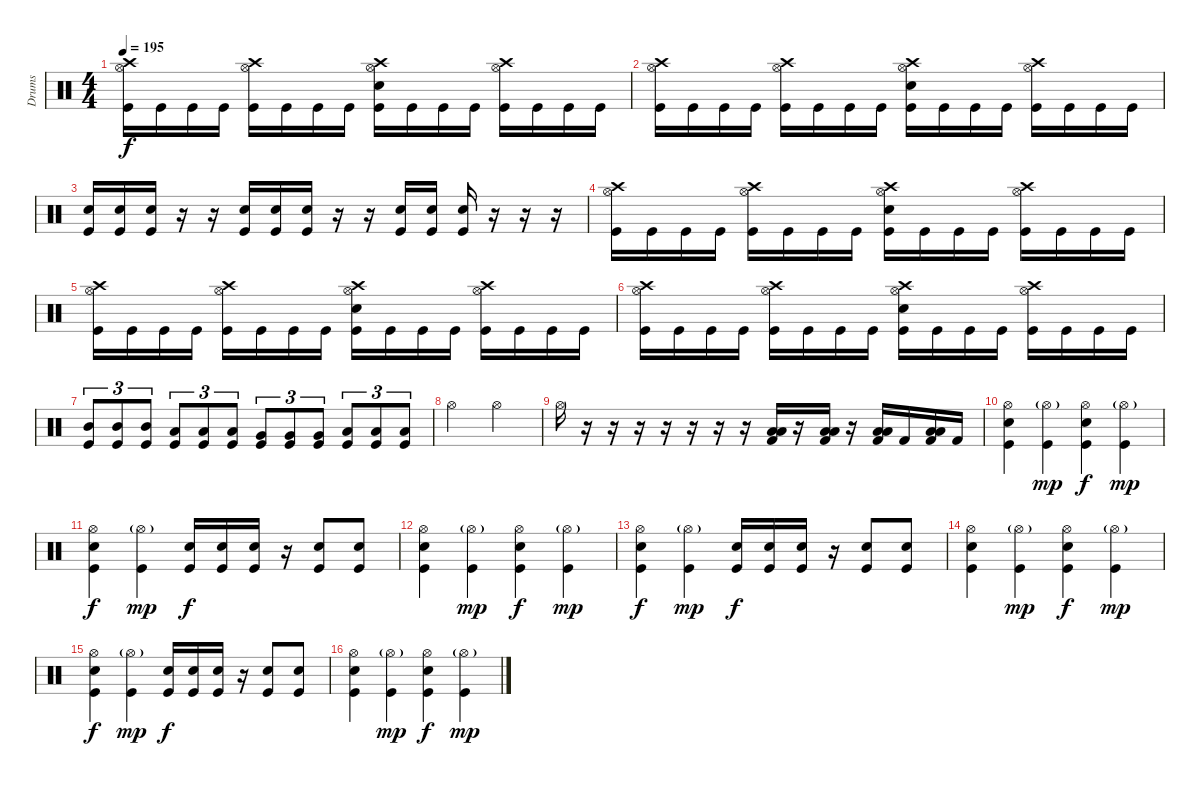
\track ("Drums" "Drums") {instrument percussion}
\staff {score}
\articulation defaults
\ts (4 4)
\tempo 195
\clef neutral
\ks c
("Crash high (hit)" "Hi-Hat (open)" "Kick (hit)").16{dy f} "Kick (hit)".16 "Kick (hit)".16 "Kick (hit)".16 ("Crash high (hit)" "Hi-Hat (open)" "Kick (hit)").16 "Kick (hit)".16 "Kick (hit)".16 "Kick (hit)".16 ("Crash high (hit)" "Hi-Hat (open)" "Electric Snare (hit)" "Kick (hit)").16 "Kick (hit)".16 "Kick (hit)".16 "Kick (hit)".16 ("Crash high (hit)" "Hi-Hat (open)" "Kick (hit)").16 "Kick (hit)".16 "Kick (hit)".16 "Kick (hit)".16 |
("Crash high (hit)" "Hi-Hat (open)" "Kick (hit)").16 "Kick (hit)".16 "Kick (hit)".16 "Kick (hit)".16 ("Crash high (hit)" "Hi-Hat (open)" "Kick (hit)").16 "Kick (hit)".16 "Kick (hit)".16 "Kick (hit)".16 ("Crash high (hit)" "Hi-Hat (open)" "Electric Snare (hit)" "Kick (hit)").16 "Kick (hit)".16 "Kick (hit)".16 "Kick (hit)".16 ("Crash high (hit)" "Hi-Hat (open)" "Kick (hit)").16 "Kick (hit)".16 "Kick (hit)".16 "Kick (hit)".16 |
("Electric Snare (hit)" "Kick (hit)").16 ("Electric Snare (hit)" "Kick (hit)").16 ("Electric Snare (hit)" "Kick (hit)").16 r.16 r.16 ("Electric Snare (hit)" "Kick (hit)").16 ("Electric Snare (hit)" "Kick (hit)").16 ("Electric Snare (hit)" "Kick (hit)").16 r.16 r.16 ("Electric Snare (hit)" "Kick (hit)").16 ("Electric Snare (hit)" "Kick (hit)").16 ("Electric Snare (hit)" "Kick (hit)").16 r.16 r.16 r.16 |
("Crash high (hit)" "Hi-Hat (open)" "Kick (hit)").16 "Kick (hit)".16 "Kick (hit)".16 "Kick (hit)".16 ("Crash high (hit)" "Hi-Hat (open)" "Kick (hit)").16 "Kick (hit)".16 "Kick (hit)".16 "Kick (hit)".16 ("Crash high (hit)" "Hi-Hat (open)" "Electric Snare (hit)" "Kick (hit)").16 "Kick (hit)".16 "Kick (hit)".16 "Kick (hit)".16 ("Crash high (hit)" "Hi-Hat (open)" "Kick (hit)").16 "Kick (hit)".16 "Kick (hit)".16 "Kick (hit)".16 |
("Crash high (hit)" "Hi-Hat (open)" "Kick (hit)").16 "Kick (hit)".16 "Kick (hit)".16 "Kick (hit)".16 ("Crash high (hit)" "Hi-Hat (open)" "Kick (hit)").16 "Kick (hit)".16 "Kick (hit)".16 "Kick (hit)".16 ("Crash high (hit)" "Hi-Hat (open)" "Electric Snare (hit)" "Kick (hit)").16 "Kick (hit)".16 "Kick (hit)".16 "Kick (hit)".16 ("Crash high (hit)" "Hi-Hat (open)" "Kick (hit)").16 "Kick (hit)".16 "Kick (hit)".16 "Kick (hit)".16 |
("Crash high (hit)" "Hi-Hat (open)" "Kick (hit)").16 "Kick (hit)".16 "Kick (hit)".16 "Kick (hit)".16 ("Crash high (hit)" "Hi-Hat (open)" "Kick (hit)").16 "Kick (hit)".16 "Kick (hit)".16 "Kick (hit)".16 ("Crash high (hit)" "Hi-Hat (open)" "Electric Snare (hit)" "Kick (hit)").16 "Kick (hit)".16 "Kick (hit)".16 "Kick (hit)".16 ("Crash high (hit)" "Hi-Hat (open)" "Kick (hit)").16 "Kick (hit)".16 "Kick (hit)".16 "Kick (hit)".16 |
("Mid Tom (hit)" "Kick (hit)").8{tu (3 2)} ("Mid Tom (hit)" "Kick (hit)").8{tu (3 2)} ("Mid Tom (hit)" "Kick (hit)").8{tu (3 2)} ("Low Tom (hit)" "Kick (hit)").8{tu (3 2)} ("Low Tom (hit)" "Kick (hit)").8{tu (3 2)} ("Low Tom (hit)" "Kick (hit)").8{tu (3 2)} ("Very Low Tom (hit)" "Kick (hit)").8{tu (3 2)} ("Very Low Tom (hit)" "Kick (hit)").8{tu (3 2)} ("Very Low Tom (hit)" "Kick (hit)").8{tu (3 2)} ("Low Floor Tom (hit)" "Kick (hit)").8{tu (3 2)} ("Low Floor Tom (hit)" "Kick (hit)").8{tu (3 2)} ("Low Floor Tom (hit)" "Kick (hit)").8{tu (3 2)} |
"Hi-Hat (open)".2 "Hi-Hat (open)".2 |
"Hi-Hat (open)".16 r.16 r.16 r.16 r.16 r.16 r.16 r.16 ("Low Floor Tom (hit)" "Low Tom (hit)" "Kick (hit) 2").16 r.16 ("Low Floor Tom (hit)" "Low Tom (hit)" "Kick (hit) 2").16 r.16 ("Low Floor Tom (hit)" "Low Tom (hit)" "Kick (hit) 2").16 "Kick (hit) 2".16 ("Low Floor Tom (hit)" "Low Tom (hit)" "Kick (hit) 2").16 "Kick (hit) 2".16 |
("Hi-Hat (open)" "Electric Snare (hit)" "Kick (hit)").4 ("Hi-Hat (open)"{g} "Kick (hit)").4{dy mp} ("Hi-Hat (open)" "Electric Snare (hit)" "Kick (hit)").4{dy f} ("Hi-Hat (open)"{g} "Kick (hit)").4{dy mp} |
("Hi-Hat (open)" "Electric Snare (hit)" "Kick (hit)").4{dy f} ("Hi-Hat (open)"{g} "Kick (hit)").4{dy mp} ("Electric Snare (hit)" "Kick (hit)").16{dy f} ("Electric Snare (hit)" "Kick (hit)").16 ("Electric Snare (hit)" "Kick (hit)").16 r.16 ("Electric Snare (hit)" "Kick (hit)").8 ("Electric Snare (hit)" "Kick (hit)").8 |
("Hi-Hat (open)" "Electric Snare (hit)" "Kick (hit)").4 ("Hi-Hat (open)"{g} "Kick (hit)").4{dy mp} ("Hi-Hat (open)" "Electric Snare (hit)" "Kick (hit)").4{dy f} ("Hi-Hat (open)"{g} "Kick (hit)").4{dy mp} |
("Hi-Hat (open)" "Electric Snare (hit)" "Kick (hit)").4{dy f} ("Hi-Hat (open)"{g} "Kick (hit)").4{dy mp} ("Electric Snare (hit)" "Kick (hit)").16{dy f} ("Electric Snare (hit)" "Kick (hit)").16 ("Electric Snare (hit)" "Kick (hit)").16 r.16 ("Electric Snare (hit)" "Kick (hit)").8 ("Electric Snare (hit)" "Kick (hit)").8 |
("Hi-Hat (open)" "Electric Snare (hit)" "Kick (hit)").4 ("Hi-Hat (open)"{g} "Kick (hit)").4{dy mp} ("Hi-Hat (open)" "Electric Snare (hit)" "Kick (hit)").4{dy f} ("Hi-Hat (open)"{g} "Kick (hit)").4{dy mp} |
("Hi-Hat (open)" "Electric Snare (hit)" "Kick (hit)").4{dy f} ("Hi-Hat (open)"{g} "Kick (hit)").4{dy mp} ("Electric Snare (hit)" "Kick (hit)").16{dy f} ("Electric Snare (hit)" "Kick (hit)").16 ("Electric Snare (hit)" "Kick (hit)").16 r.16 ("Electric Snare (hit)" "Kick (hit)").8 ("Electric Snare (hit)" "Kick (hit)").8 |
("Hi-Hat (open)" "Electric Snare (hit)" "Kick (hit)").4 ("Hi-Hat (open)"{g} "Kick (hit)").4{dy mp} ("Hi-Hat (open)" "Electric Snare (hit)" "Kick (hit)").4{dy f} ("Hi-Hat (open)"{g} "Kick (hit)").4{dy mp}
